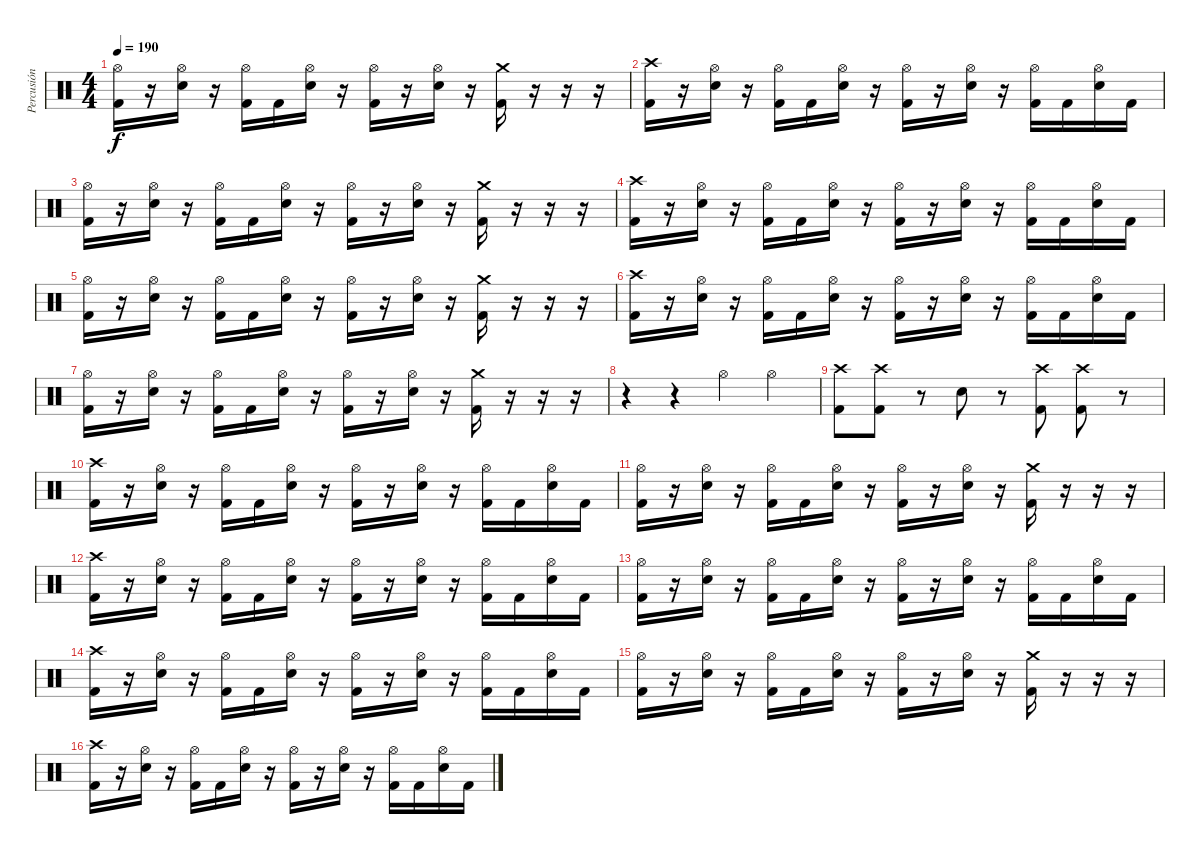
\track ("Percusión" "Percusión") {instrument percussion}
\staff {score}
\articulation defaults
\ts (4 4)
\tempo 190
\clef neutral
\ks c
("Hi-Hat (open)" "Kick (hit) 2").16{dy f} r.16 ("Hi-Hat (open)" "Electric Snare (hit)").16 r.16 ("Hi-Hat (open)" "Kick (hit) 2").16 "Kick (hit) 2".16 ("Hi-Hat (open)" "Electric Snare (hit)").16 r.16 ("Hi-Hat (open)" "Kick (hit) 2").16 r.16 ("Hi-Hat (open)" "Electric Snare (hit)").16 r.16 ("Crash medium (hit)" "Kick (hit) 2").16 r.16 r.16 r.16 |
("Crash high (hit)" "Kick (hit) 2").16 r.16 ("Hi-Hat (open)" "Electric Snare (hit)").16 r.16 ("Hi-Hat (open)" "Kick (hit) 2").16 "Kick (hit) 2".16 ("Hi-Hat (open)" "Electric Snare (hit)").16 r.16 ("Hi-Hat (open)" "Kick (hit) 2").16 r.16 ("Hi-Hat (open)" "Electric Snare (hit)").16 r.16 ("Hi-Hat (open)" "Kick (hit) 2").16 "Kick (hit) 2".16 ("Hi-Hat (open)" "Electric Snare (hit)").16 "Kick (hit) 2".16 |
("Hi-Hat (open)" "Kick (hit) 2").16 r.16 ("Hi-Hat (open)" "Electric Snare (hit)").16 r.16 ("Hi-Hat (open)" "Kick (hit) 2").16 "Kick (hit) 2".16 ("Hi-Hat (open)" "Electric Snare (hit)").16 r.16 ("Hi-Hat (open)" "Kick (hit) 2").16 r.16 ("Hi-Hat (open)" "Electric Snare (hit)").16 r.16 ("Crash medium (hit)" "Kick (hit) 2").16 r.16 r.16 r.16 |
("Crash high (hit)" "Kick (hit) 2").16 r.16 ("Hi-Hat (open)" "Electric Snare (hit)").16 r.16 ("Hi-Hat (open)" "Kick (hit) 2").16 "Kick (hit) 2".16 ("Hi-Hat (open)" "Electric Snare (hit)").16 r.16 ("Hi-Hat (open)" "Kick (hit) 2").16 r.16 ("Hi-Hat (open)" "Electric Snare (hit)").16 r.16 ("Hi-Hat (open)" "Kick (hit) 2").16 "Kick (hit) 2".16 ("Hi-Hat (open)" "Electric Snare (hit)").16 "Kick (hit) 2".16 |
("Hi-Hat (open)" "Kick (hit) 2").16 r.16 ("Hi-Hat (open)" "Electric Snare (hit)").16 r.16 ("Hi-Hat (open)" "Kick (hit) 2").16 "Kick (hit) 2".16 ("Hi-Hat (open)" "Electric Snare (hit)").16 r.16 ("Hi-Hat (open)" "Kick (hit) 2").16 r.16 ("Hi-Hat (open)" "Electric Snare (hit)").16 r.16 ("Crash medium (hit)" "Kick (hit) 2").16 r.16 r.16 r.16 |
("Crash high (hit)" "Kick (hit) 2").16 r.16 ("Hi-Hat (open)" "Electric Snare (hit)").16 r.16 ("Hi-Hat (open)" "Kick (hit) 2").16 "Kick (hit) 2".16 ("Hi-Hat (open)" "Electric Snare (hit)").16 r.16 ("Hi-Hat (open)" "Kick (hit) 2").16 r.16 ("Hi-Hat (open)" "Electric Snare (hit)").16 r.16 ("Hi-Hat (open)" "Kick (hit) 2").16 "Kick (hit) 2".16 ("Hi-Hat (open)" "Electric Snare (hit)").16 "Kick (hit) 2".16 |
("Hi-Hat (open)" "Kick (hit) 2").16 r.16 ("Hi-Hat (open)" "Electric Snare (hit)").16 r.16 ("Hi-Hat (open)" "Kick (hit) 2").16 "Kick (hit) 2".16 ("Hi-Hat (open)" "Electric Snare (hit)").16 r.16 ("Hi-Hat (open)" "Kick (hit) 2").16 r.16 ("Hi-Hat (open)" "Electric Snare (hit)").16 r.16 ("Crash medium (hit)" "Kick (hit) 2").16 r.16 r.16 r.16 |
r.4 r.4 "Hi-Hat (open)".4 "Hi-Hat (open)".4 |
("Crash high (hit)" "Kick (hit) 2").8 ("Crash high (hit)" "Kick (hit) 2").8 r.8 "Electric Snare (hit)".8 r.8 ("Crash high (hit)" "Kick (hit) 2").8 ("Crash high (hit)" "Kick (hit) 2").8 r.8 |
("Crash high (hit)" "Kick (hit) 2").16 r.16 ("Hi-Hat (open)" "Electric Snare (hit)").16 r.16 ("Hi-Hat (open)" "Kick (hit) 2").16 "Kick (hit) 2".16 ("Hi-Hat (open)" "Electric Snare (hit)").16 r.16 ("Hi-Hat (open)" "Kick (hit) 2").16 r.16 ("Hi-Hat (open)" "Electric Snare (hit)").16 r.16 ("Hi-Hat (open)" "Kick (hit) 2").16 "Kick (hit) 2".16 ("Hi-Hat (open)" "Electric Snare (hit)").16 "Kick (hit) 2".16 |
("Hi-Hat (open)" "Kick (hit) 2").16 r.16 ("Hi-Hat (open)" "Electric Snare (hit)").16 r.16 ("Hi-Hat (open)" "Kick (hit) 2").16 "Kick (hit) 2".16 ("Hi-Hat (open)" "Electric Snare (hit)").16 r.16 ("Hi-Hat (open)" "Kick (hit) 2").16 r.16 ("Hi-Hat (open)" "Electric Snare (hit)").16 r.16 ("Crash medium (hit)" "Kick (hit) 2").16 r.16 r.16 r.16 |
("Crash high (hit)" "Kick (hit) 2").16 r.16 ("Hi-Hat (open)" "Electric Snare (hit)").16 r.16 ("Hi-Hat (open)" "Kick (hit) 2").16 "Kick (hit) 2".16 ("Hi-Hat (open)" "Electric Snare (hit)").16 r.16 ("Hi-Hat (open)" "Kick (hit) 2").16 r.16 ("Hi-Hat (open)" "Electric Snare (hit)").16 r.16 ("Hi-Hat (open)" "Kick (hit) 2").16 "Kick (hit) 2".16 ("Hi-Hat (open)" "Electric Snare (hit)").16 "Kick (hit) 2".16 |
("Hi-Hat (open)" "Kick (hit) 2").16 r.16 ("Hi-Hat (open)" "Electric Snare (hit)").16 r.16 ("Hi-Hat (open)" "Kick (hit) 2").16 "Kick (hit) 2".16 ("Hi-Hat (open)" "Electric Snare (hit)").16 r.16 ("Hi-Hat (open)" "Kick (hit) 2").16 r.16 ("Hi-Hat (open)" "Electric Snare (hit)").16 r.16 ("Hi-Hat (open)" "Kick (hit) 2").16 "Kick (hit) 2".16 ("Hi-Hat (open)" "Electric Snare (hit)").16 "Kick (hit) 2".16 |
("Crash high (hit)" "Kick (hit) 2").16 r.16 ("Hi-Hat (open)" "Electric Snare (hit)").16 r.16 ("Hi-Hat (open)" "Kick (hit) 2").16 "Kick (hit) 2".16 ("Hi-Hat (open)" "Electric Snare (hit)").16 r.16 ("Hi-Hat (open)" "Kick (hit) 2").16 r.16 ("Hi-Hat (open)" "Electric Snare (hit)").16 r.16 ("Hi-Hat (open)" "Kick (hit) 2").16 "Kick (hit) 2".16 ("Hi-Hat (open)" "Electric Snare (hit)").16 "Kick (hit) 2".16 |
("Hi-Hat (open)" "Kick (hit) 2").16 r.16 ("Hi-Hat (open)" "Electric Snare (hit)").16 r.16 ("Hi-Hat (open)" "Kick (hit) 2").16 "Kick (hit) 2".16 ("Hi-Hat (open)" "Electric Snare (hit)").16 r.16 ("Hi-Hat (open)" "Kick (hit) 2").16 r.16 ("Hi-Hat (open)" "Electric Snare (hit)").16 r.16 ("Crash medium (hit)" "Kick (hit) 2").16 r.16 r.16 r.16 |
("Crash high (hit)" "Kick (hit) 2").16 r.16 ("Hi-Hat (open)" "Electric Snare (hit)").16 r.16 ("Hi-Hat (open)" "Kick (hit) 2").16 "Kick (hit) 2".16 ("Hi-Hat (open)" "Electric Snare (hit)").16 r.16 ("Hi-Hat (open)" "Kick (hit) 2").16 r.16 ("Hi-Hat (open)" "Electric Snare (hit)").16 r.16 ("Hi-Hat (open)" "Kick (hit) 2").16 "Kick (hit) 2".16 ("Hi-Hat (open)" "Electric Snare (hit)").16 "Kick (hit) 2".16
